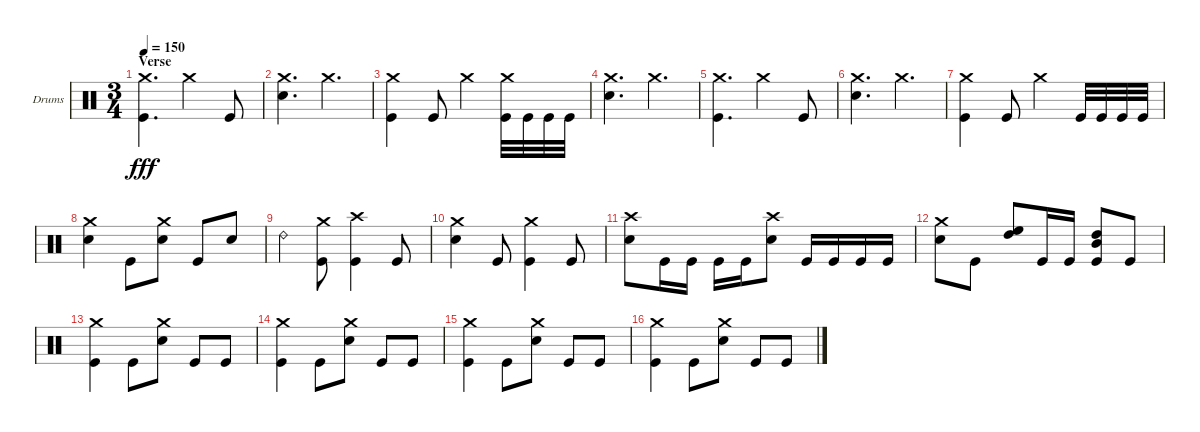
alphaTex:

\defaultSystemsLayout 4
\bracketExtendMode groupsimilarinstruments
\firstSystemTrackNameOrientation horizontal
\otherSystemsTrackNameOrientation horizontal
\track ("Chris Adler" "Drums") {instrument percussion}
\staff {score}
\articulation defaults
\ts (3 4)
\section ("" "Verse")
\tempo 150
\clef neutral
\ks c
("Kick (hit)" "Crash medium (hit)").4{d dy fff} "Crash medium (hit)".4 "Kick (hit)".8 |
("Snare (hit) 2" "Crash medium (hit)").4{d} "Crash medium (hit)".4{d} |
("Kick (hit)" "Crash medium (hit)").4 "Kick (hit)".8 "Crash medium (hit)".4 ("Kick (hit)" "Crash medium (hit)").32 "Kick (hit)".32 "Kick (hit)".32 "Kick (hit)".32 |
("Snare (hit) 2" "Crash medium (hit)").4{d} "Crash medium (hit)".4{d} |
("Kick (hit)" "Crash medium (hit)").4{d} "Crash medium (hit)".4 "Kick (hit)".8 |
("Snare (hit) 2" "Crash medium (hit)").4{d} "Crash medium (hit)".4{d} |
("Kick (hit)" "Crash medium (hit)").4 "Kick (hit)".8 "Crash medium (hit)".4 "Kick (hit)".32 "Kick (hit)".32 "Kick (hit)".32 "Kick (hit)".32 |
("Snare (hit) 2" "Crash medium (hit)").4 "Kick (hit)".8 ("Snare (hit) 2" "Crash medium (hit)").8 "Kick (hit)".8 "Snare (hit) 2".8 |
"Ride (bell) 2".4 ("Kick (hit)" "Crash medium (hit)").8 ("Kick (hit)" "Crash high (hit)").4 "Kick (hit)".8 |
("Snare (hit) 2" "Crash medium (hit)").4 "Kick (hit)".8 ("Kick (hit)" "Crash medium (hit)").4 "Kick (hit)".8 |
("Snare (hit) 2" "Crash high (hit)").8 "Kick (hit)".16 "Kick (hit)".16 "Kick (hit)".16 "Kick (hit)".16 ("Snare (hit) 2" "Crash high (hit)").8 "Kick (hit)".16 "Kick (hit)".16 "Kick (hit)".16 "Kick (hit)".16 |
("Snare (hit) 2" "Crash medium (hit)").8 "Kick (hit)".8 ("High Floor Tom (hit)" "High Tom (hit)").8 "Kick (hit)".16 "Kick (hit)".16 ("Kick (hit)" "Mid Tom (hit)" "High Tom (hit)").8 "Kick (hit)".8 |
("Kick (hit)" "Crash medium (hit)").4 "Kick (hit)".8 ("Snare (hit) 2" "Crash medium (hit)").8 "Kick (hit)".8 "Kick (hit)".8 |
("Kick (hit)" "Crash medium (hit)").4 "Kick (hit)".8 ("Snare (hit) 2" "Crash medium (hit)").8 "Kick (hit)".8 "Kick (hit)".8 |
("Kick (hit)" "Crash medium (hit)").4 "Kick (hit)".8 ("Snare (hit) 2" "Crash medium (hit)").8 "Kick (hit)".8 "Kick (hit)".8 |
("Kick (hit)" "Crash medium (hit)").4 "Kick (hit)".8 ("Snare (hit) 2" "Crash medium (hit)").8 "Kick (hit)".8 "Kick (hit)".8
